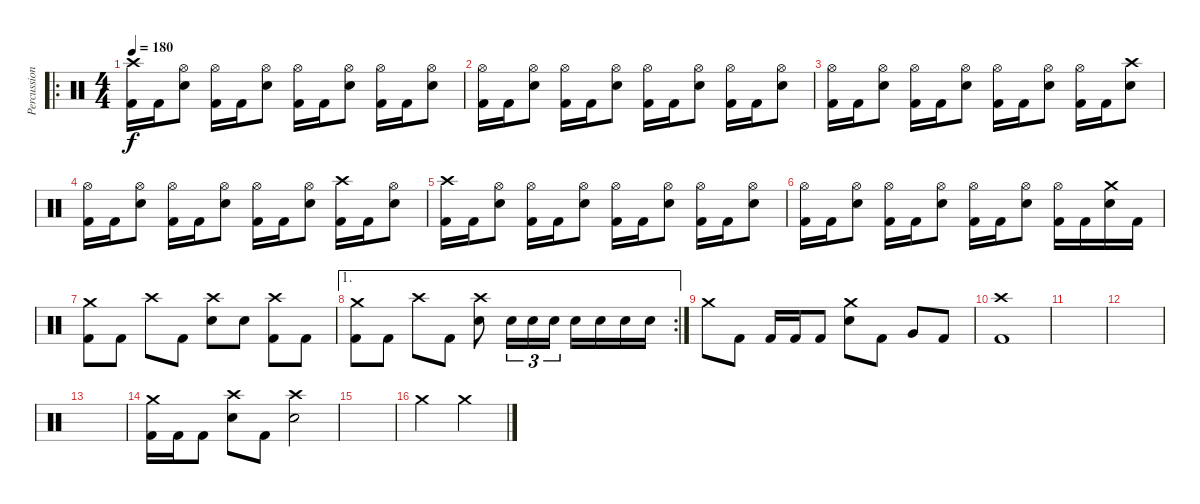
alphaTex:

\track ("Percussion" "Percussion") {instrument percussion}
\staff {score}
\articulation defaults
\ro
\ts (4 4)
\tempo 180
\clef neutral
\ks c
("Crash high (hit)" "Kick (hit) 2").16{dy f} "Kick (hit) 2".16 ("Hi-Hat (open)" "Electric Snare (hit)").8 ("Hi-Hat (open)" "Kick (hit) 2").16 "Kick (hit) 2".16 ("Hi-Hat (open)" "Electric Snare (hit)").8 ("Hi-Hat (open)" "Kick (hit) 2").16 "Kick (hit) 2".16 ("Hi-Hat (open)" "Electric Snare (hit)").8 ("Hi-Hat (open)" "Kick (hit) 2").16 "Kick (hit) 2".16 ("Hi-Hat (open)" "Electric Snare (hit)").8 |
("Hi-Hat (open)" "Kick (hit) 2").16 "Kick (hit) 2".16 ("Hi-Hat (open)" "Electric Snare (hit)").8 ("Hi-Hat (open)" "Kick (hit) 2").16 "Kick (hit) 2".16 ("Hi-Hat (open)" "Electric Snare (hit)").8 ("Hi-Hat (open)" "Kick (hit) 2").16 "Kick (hit) 2".16 ("Hi-Hat (open)" "Electric Snare (hit)").8 ("Hi-Hat (open)" "Kick (hit) 2").16 "Kick (hit) 2".16 ("Hi-Hat (open)" "Electric Snare (hit)").8 |
("Hi-Hat (open)" "Kick (hit) 2").16 "Kick (hit) 2".16 ("Hi-Hat (open)" "Electric Snare (hit)").8 ("Hi-Hat (open)" "Kick (hit) 2").16 "Kick (hit) 2".16 ("Hi-Hat (open)" "Electric Snare (hit)").8 ("Hi-Hat (open)" "Kick (hit) 2").16 "Kick (hit) 2".16 ("Hi-Hat (open)" "Electric Snare (hit)").8 ("Hi-Hat (open)" "Kick (hit) 2").16 "Kick (hit) 2".16 ("Crash high (hit)" "Electric Snare (hit)").8 |
("Hi-Hat (open)" "Kick (hit) 2").16 "Kick (hit) 2".16 ("Hi-Hat (open)" "Electric Snare (hit)").8 ("Hi-Hat (open)" "Kick (hit) 2").16 "Kick (hit) 2".16 ("Hi-Hat (open)" "Electric Snare (hit)").8 ("Hi-Hat (open)" "Kick (hit) 2").16 "Kick (hit) 2".16 ("Hi-Hat (open)" "Electric Snare (hit)").8 ("Crash high (hit)" "Kick (hit) 2").16 "Kick (hit) 2".16 ("Hi-Hat (open)" "Electric Snare (hit)").8 |
("Crash high (hit)" "Kick (hit) 2").16 "Kick (hit) 2".16 ("Hi-Hat (open)" "Electric Snare (hit)").8 ("Hi-Hat (open)" "Kick (hit) 2").16 "Kick (hit) 2".16 ("Hi-Hat (open)" "Electric Snare (hit)").8 ("Hi-Hat (open)" "Kick (hit) 2").16 "Kick (hit) 2".16 ("Hi-Hat (open)" "Electric Snare (hit)").8 ("Hi-Hat (open)" "Kick (hit) 2").16 "Kick (hit) 2".16 ("Hi-Hat (open)" "Electric Snare (hit)").8 |
("Hi-Hat (open)" "Kick (hit) 2").16 "Kick (hit) 2".16 ("Hi-Hat (open)" "Electric Snare (hit)").8 ("Hi-Hat (open)" "Kick (hit) 2").16 "Kick (hit) 2".16 ("Hi-Hat (open)" "Electric Snare (hit)").8 ("Hi-Hat (open)" "Kick (hit) 2").16 "Kick (hit) 2".16 ("Hi-Hat (open)" "Electric Snare (hit)").8 ("Hi-Hat (open)" "Kick (hit) 2").16 "Kick (hit) 2".16 ("Crash medium (hit)" "Electric Snare (hit)").16 "Kick (hit) 2".16 |
("Crash medium (hit)" "Kick (hit) 2").8 "Kick (hit) 2".8 "Crash high (hit)".8 "Kick (hit) 2".8 ("Crash high (hit)" "Electric Snare (hit)").8 "Electric Snare (hit)".8 ("Crash high (hit)" "Kick (hit) 2").8 "Kick (hit) 2".8 |
\ae 1
\rc 2
("Crash medium (hit)" "Kick (hit) 2").8 "Kick (hit) 2".8 "Crash high (hit)".8 "Kick (hit) 2".8 ("Crash high (hit)" "Electric Snare (hit)").8 "Electric Snare (hit)".16{tu (3 2)} "Electric Snare (hit)".16{tu (3 2)} "Electric Snare (hit)".16{tu (3 2)} "Electric Snare (hit)".16 "Electric Snare (hit)".16 "Electric Snare (hit)".16 "Electric Snare (hit)".16 |
"Crash medium (hit)".8 "Kick (hit) 2".8 "Kick (hit) 2".16 "Kick (hit) 2".16 "Kick (hit) 2".8 ("Crash medium (hit)" "Electric Snare (hit)").8 "Kick (hit) 2".8 "Very Low Tom (hit)".8 "Kick (hit) 2".8 |
("Crash high (hit)" "Kick (hit) 2").1 |
|
|
|
("Crash medium (hit)" "Kick (hit) 2").16 "Kick (hit) 2".16 "Kick (hit) 2".8 ("Crash high (hit)" "Electric Snare (hit)").8 "Kick (hit) 2".8 ("Crash high (hit)" "Electric Snare (hit)").2 |
|
"Crash medium (hit)".2 "Crash medium (hit)".2
